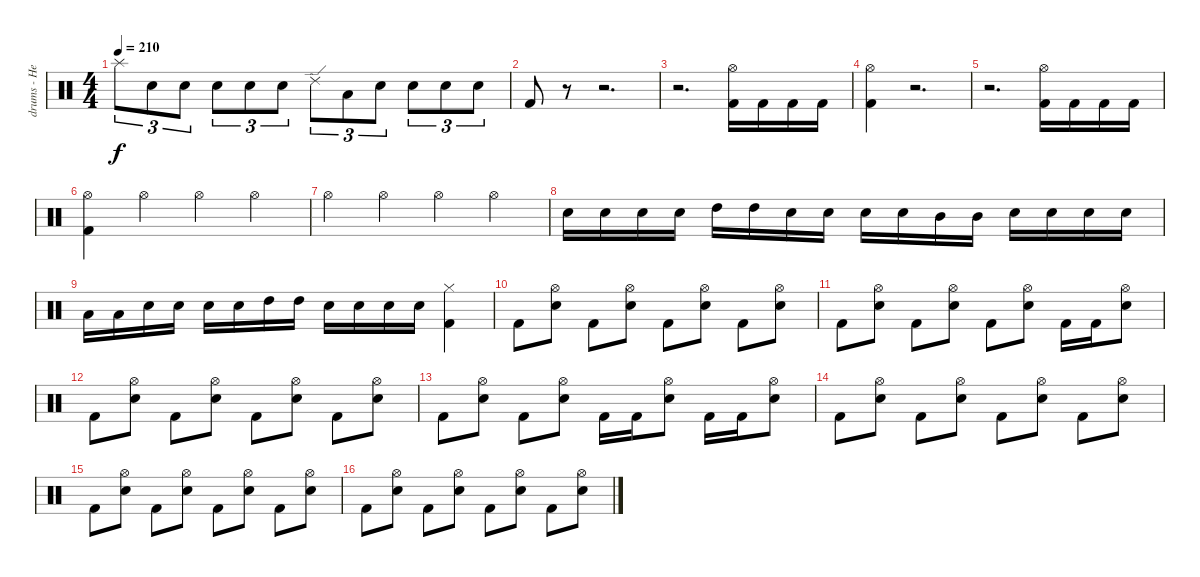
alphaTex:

\track ("drums - Heikki" "drums - He") {instrument percussion}
\staff {score}
\articulation defaults
\ts (4 4)
\tempo 210
\clef neutral
\ks c "Splash (hit)".8{tu (3 2) dy f} "Snare (hit) 2".8{tu (3 2)} "Snare (hit) 2".8{tu (3 2)} "Snare (hit) 2".8{tu (3 2)} "Snare (hit) 2".8{tu (3 2)} "Snare (hit) 2".8{tu (3 2)} "Ride (edge) 2".8{tu (3 2)} "Low Tom (hit)".8{tu (3 2)} "Snare (hit) 2".8{tu (3 2)} "Snare (hit) 2".8{tu (3 2)} "Snare (hit) 2".8{tu (3 2)} "Snare (hit) 2".8{tu (3 2)}
|
"Kick (hit) 2".8 r.8 r.2{d} |
r.2{d} ("Hi-Hat (open)" "Kick (hit) 2").16 "Kick (hit) 2".16 "Kick (hit) 2".16 "Kick (hit) 2".16 |
("Hi-Hat (open)" "Kick (hit) 2").4 r.2{d} |
r.2{d} ("Hi-Hat (open)" "Kick (hit) 2").16 "Kick (hit) 2".16 "Kick (hit) 2".16 "Kick (hit) 2".16 |
("Hi-Hat (open)" "Kick (hit) 2").4 "Hi-Hat (open)".4 "Hi-Hat (open)".4 "Hi-Hat (open)".4 |
"Hi-Hat (open)".4 "Hi-Hat (open)".4 "Hi-Hat (open)".4 "Hi-Hat (open)".4 |
"Snare (hit) 2".16 "Snare (hit) 2".16 "Snare (hit) 2".16 "Snare (hit) 2".16 "High Tom (hit)".16 "High Tom (hit)".16 "Snare (hit) 2".16 "Snare (hit) 2".16 "Snare (hit) 2".16 "Snare (hit) 2".16 "Mid Tom (hit)".16 "Mid Tom (hit)".16 "Snare (hit) 2".16 "Snare (hit) 2".16 "Snare (hit) 2".16 "Snare (hit) 2".16 |
"Low Tom (hit)".16 "Low Tom (hit)".16 "Snare (hit) 2".16 "Snare (hit) 2".16 "Snare (hit) 2".16 "Snare (hit) 2".16 "High Tom (hit)".16 "High Tom (hit)".16 "Snare (hit) 2".16 "Snare (hit) 2".16 "Snare (hit) 2".16 "Snare (hit) 2".16 ("Hi-Hat (closed)" "Kick (hit) 2").4 |
"Kick (hit) 2".8 ("Hi-Hat (open)" "Snare (hit) 2").8 "Kick (hit) 2".8 ("Hi-Hat (open)" "Snare (hit) 2").8 "Kick (hit) 2".8 ("Hi-Hat (open)" "Snare (hit) 2").8 "Kick (hit) 2".8 ("Hi-Hat (open)" "Snare (hit) 2").8 |
"Kick (hit) 2".8 ("Hi-Hat (open)" "Snare (hit) 2").8 "Kick (hit) 2".8 ("Hi-Hat (open)" "Snare (hit) 2").8 "Kick (hit) 2".8 ("Hi-Hat (open)" "Snare (hit) 2").8 "Kick (hit) 2".16 "Kick (hit) 2".16 ("Hi-Hat (open)" "Snare (hit) 2").8 |
"Kick (hit) 2".8 ("Hi-Hat (open)" "Snare (hit) 2").8 "Kick (hit) 2".8 ("Hi-Hat (open)" "Snare (hit) 2").8 "Kick (hit) 2".8 ("Hi-Hat (open)" "Snare (hit) 2").8 "Kick (hit) 2".8 ("Hi-Hat (open)" "Snare (hit) 2").8 |
"Kick (hit) 2".8 ("Hi-Hat (open)" "Snare (hit) 2").8 "Kick (hit) 2".8 ("Hi-Hat (open)" "Snare (hit) 2").8 "Kick (hit) 2".16 "Kick (hit) 2".16 ("Hi-Hat (open)" "Snare (hit) 2").8 "Kick (hit) 2".16 "Kick (hit) 2".16 ("Hi-Hat (open)" "Snare (hit) 2").8 |
"Kick (hit) 2".8 ("Hi-Hat (open)" "Snare (hit) 2").8 "Kick (hit) 2".8 ("Hi-Hat (open)" "Snare (hit) 2").8 "Kick (hit) 2".8 ("Hi-Hat (open)" "Snare (hit) 2").8 "Kick (hit) 2".8 ("Hi-Hat (open)" "Snare (hit) 2").8 |
"Kick (hit) 2".8 ("Hi-Hat (open)" "Snare (hit) 2").8 "Kick (hit) 2".8 ("Hi-Hat (open)" "Snare (hit) 2").8 "Kick (hit) 2".8 ("Hi-Hat (open)" "Snare (hit) 2").8 "Kick (hit) 2".8 ("Hi-Hat (open)" "Snare (hit) 2").8 |
"Kick (hit) 2".8 ("Hi-Hat (open)" "Snare (hit) 2").8 "Kick (hit) 2".8 ("Hi-Hat (open)" "Snare (hit) 2").8 "Kick (hit) 2".8 ("Hi-Hat (open)" "Snare (hit) 2").8 "Kick (hit) 2".8 ("Hi-Hat (open)" "Snare (hit) 2").8
